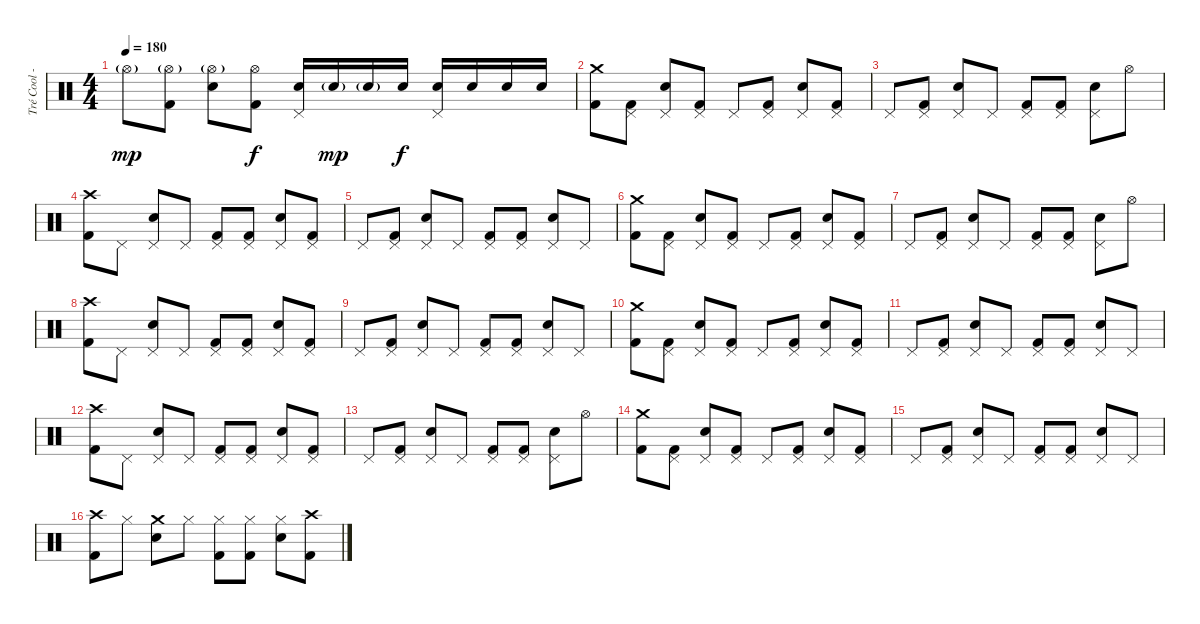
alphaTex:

\track ("Tré Cool - Drums" "Tré Cool -") {instrument percussion}
\staff {score}
\articulation defaults
\ts (4 4)
\tempo 180
\clef neutral
\ks c "Hi-Hat (open)"{g}.8{dy mp}
("Hi-Hat (open)"{g} "Kick (hit) 2").8 ("Hi-Hat (open)"{g} "Electric Snare (hit)").8 ("Hi-Hat (open)" "Kick (hit) 2").8{dy f} ("Pedal Hi-Hat (hit)" "Electric Snare (hit)").16 "Electric Snare (hit)"{g}.16{dy mp} "Electric Snare (hit)"{g}.16 "Electric Snare (hit)".16{dy f} ("Pedal Hi-Hat (hit)" "Electric Snare (hit)").16 "Electric Snare (hit)".16 "Electric Snare (hit)".16 "Electric Snare (hit)".16 |
("Crash medium (hit)" "Kick (hit) 2").8 ("Pedal Hi-Hat (hit)" "Kick (hit) 2").8 ("Pedal Hi-Hat (hit)" "Electric Snare (hit)").8 ("Pedal Hi-Hat (hit)" "Kick (hit) 2").8 "Pedal Hi-Hat (hit)".8 ("Pedal Hi-Hat (hit)" "Kick (hit) 2").8 ("Pedal Hi-Hat (hit)" "Electric Snare (hit)").8 ("Pedal Hi-Hat (hit)" "Kick (hit) 2").8 |
"Pedal Hi-Hat (hit)".8 ("Pedal Hi-Hat (hit)" "Kick (hit) 2").8 ("Pedal Hi-Hat (hit)" "Electric Snare (hit)").8 "Pedal Hi-Hat (hit)".8 ("Pedal Hi-Hat (hit)" "Kick (hit) 2").8 ("Pedal Hi-Hat (hit)" "Kick (hit) 2").8 ("Pedal Hi-Hat (hit)" "Electric Snare (hit)").8 "Hi-Hat (open)".8 |
("Crash high (hit)" "Kick (hit) 2").8 "Pedal Hi-Hat (hit)".8 ("Pedal Hi-Hat (hit)" "Electric Snare (hit)").8 "Pedal Hi-Hat (hit)".8 ("Pedal Hi-Hat (hit)" "Kick (hit) 2").8 ("Pedal Hi-Hat (hit)" "Kick (hit) 2").8 ("Pedal Hi-Hat (hit)" "Electric Snare (hit)").8 ("Pedal Hi-Hat (hit)" "Kick (hit) 2").8 |
"Pedal Hi-Hat (hit)".8 ("Pedal Hi-Hat (hit)" "Kick (hit) 2").8 ("Pedal Hi-Hat (hit)" "Electric Snare (hit)").8 "Pedal Hi-Hat (hit)".8 ("Pedal Hi-Hat (hit)" "Kick (hit) 2").8 ("Pedal Hi-Hat (hit)" "Kick (hit) 2").8 ("Pedal Hi-Hat (hit)" "Electric Snare (hit)").8 "Pedal Hi-Hat (hit)".8 |
("Crash medium (hit)" "Kick (hit) 2").8 ("Pedal Hi-Hat (hit)" "Kick (hit) 2").8 ("Pedal Hi-Hat (hit)" "Electric Snare (hit)").8 ("Pedal Hi-Hat (hit)" "Kick (hit) 2").8 "Pedal Hi-Hat (hit)".8 ("Pedal Hi-Hat (hit)" "Kick (hit) 2").8 ("Pedal Hi-Hat (hit)" "Electric Snare (hit)").8 ("Pedal Hi-Hat (hit)" "Kick (hit) 2").8 |
"Pedal Hi-Hat (hit)".8 ("Pedal Hi-Hat (hit)" "Kick (hit) 2").8 ("Pedal Hi-Hat (hit)" "Electric Snare (hit)").8 "Pedal Hi-Hat (hit)".8 ("Pedal Hi-Hat (hit)" "Kick (hit) 2").8 ("Pedal Hi-Hat (hit)" "Kick (hit) 2").8 ("Pedal Hi-Hat (hit)" "Electric Snare (hit)").8 "Hi-Hat (open)".8 |
("Crash high (hit)" "Kick (hit) 2").8 "Pedal Hi-Hat (hit)".8 ("Pedal Hi-Hat (hit)" "Electric Snare (hit)").8 "Pedal Hi-Hat (hit)".8 ("Pedal Hi-Hat (hit)" "Kick (hit) 2").8 ("Pedal Hi-Hat (hit)" "Kick (hit) 2").8 ("Pedal Hi-Hat (hit)" "Electric Snare (hit)").8 ("Pedal Hi-Hat (hit)" "Kick (hit) 2").8 |
"Pedal Hi-Hat (hit)".8 ("Pedal Hi-Hat (hit)" "Kick (hit) 2").8 ("Pedal Hi-Hat (hit)" "Electric Snare (hit)").8 "Pedal Hi-Hat (hit)".8 ("Pedal Hi-Hat (hit)" "Kick (hit) 2").8 ("Pedal Hi-Hat (hit)" "Kick (hit) 2").8 ("Pedal Hi-Hat (hit)" "Electric Snare (hit)").8 "Pedal Hi-Hat (hit)".8 |
("Crash medium (hit)" "Kick (hit) 2").8 ("Pedal Hi-Hat (hit)" "Kick (hit) 2").8 ("Pedal Hi-Hat (hit)" "Electric Snare (hit)").8 ("Pedal Hi-Hat (hit)" "Kick (hit) 2").8 "Pedal Hi-Hat (hit)".8 ("Pedal Hi-Hat (hit)" "Kick (hit) 2").8 ("Pedal Hi-Hat (hit)" "Electric Snare (hit)").8 ("Pedal Hi-Hat (hit)" "Kick (hit) 2").8 |
"Pedal Hi-Hat (hit)".8 ("Pedal Hi-Hat (hit)" "Kick (hit) 2").8 ("Pedal Hi-Hat (hit)" "Electric Snare (hit)").8 "Pedal Hi-Hat (hit)".8 ("Pedal Hi-Hat (hit)" "Kick (hit) 2").8 ("Pedal Hi-Hat (hit)" "Kick (hit) 2").8 ("Pedal Hi-Hat (hit)" "Electric Snare (hit)").8 "Pedal Hi-Hat (hit)".8 |
("Crash high (hit)" "Kick (hit) 2").8 "Pedal Hi-Hat (hit)".8 ("Pedal Hi-Hat (hit)" "Electric Snare (hit)").8 "Pedal Hi-Hat (hit)".8 ("Pedal Hi-Hat (hit)" "Kick (hit) 2").8 ("Pedal Hi-Hat (hit)" "Kick (hit) 2").8 ("Pedal Hi-Hat (hit)" "Electric Snare (hit)").8 ("Pedal Hi-Hat (hit)" "Kick (hit) 2").8 |
"Pedal Hi-Hat (hit)".8 ("Pedal Hi-Hat (hit)" "Kick (hit) 2").8 ("Pedal Hi-Hat (hit)" "Electric Snare (hit)").8 "Pedal Hi-Hat (hit)".8 ("Pedal Hi-Hat (hit)" "Kick (hit) 2").8 ("Pedal Hi-Hat (hit)" "Kick (hit) 2").8 ("Pedal Hi-Hat (hit)" "Electric Snare (hit)").8 "Hi-Hat (open)".8 |
("Crash medium (hit)" "Kick (hit) 2").8 ("Pedal Hi-Hat (hit)" "Kick (hit) 2").8 ("Pedal Hi-Hat (hit)" "Electric Snare (hit)").8 ("Pedal Hi-Hat (hit)" "Kick (hit) 2").8 "Pedal Hi-Hat (hit)".8 ("Pedal Hi-Hat (hit)" "Kick (hit) 2").8 ("Pedal Hi-Hat (hit)" "Electric Snare (hit)").8 ("Pedal Hi-Hat (hit)" "Kick (hit) 2").8 |
"Pedal Hi-Hat (hit)".8 ("Pedal Hi-Hat (hit)" "Kick (hit) 2").8 ("Pedal Hi-Hat (hit)" "Electric Snare (hit)").8 "Pedal Hi-Hat (hit)".8 ("Pedal Hi-Hat (hit)" "Kick (hit) 2").8 ("Pedal Hi-Hat (hit)" "Kick (hit) 2").8 ("Pedal Hi-Hat (hit)" "Electric Snare (hit)").8 "Pedal Hi-Hat (hit)".8 |
("Crash high (hit)" "Kick (hit) 2").8 "Hi-Hat (closed)".8 ("Crash medium (hit)" "Electric Snare (hit)").8 "Hi-Hat (closed)".8 ("Hi-Hat (closed)" "Kick (hit) 2").8 ("Hi-Hat (closed)" "Kick (hit) 2").8 ("Hi-Hat (closed)" "Electric Snare (hit)").8 ("Crash high (hit)" "Kick (hit) 2").8
